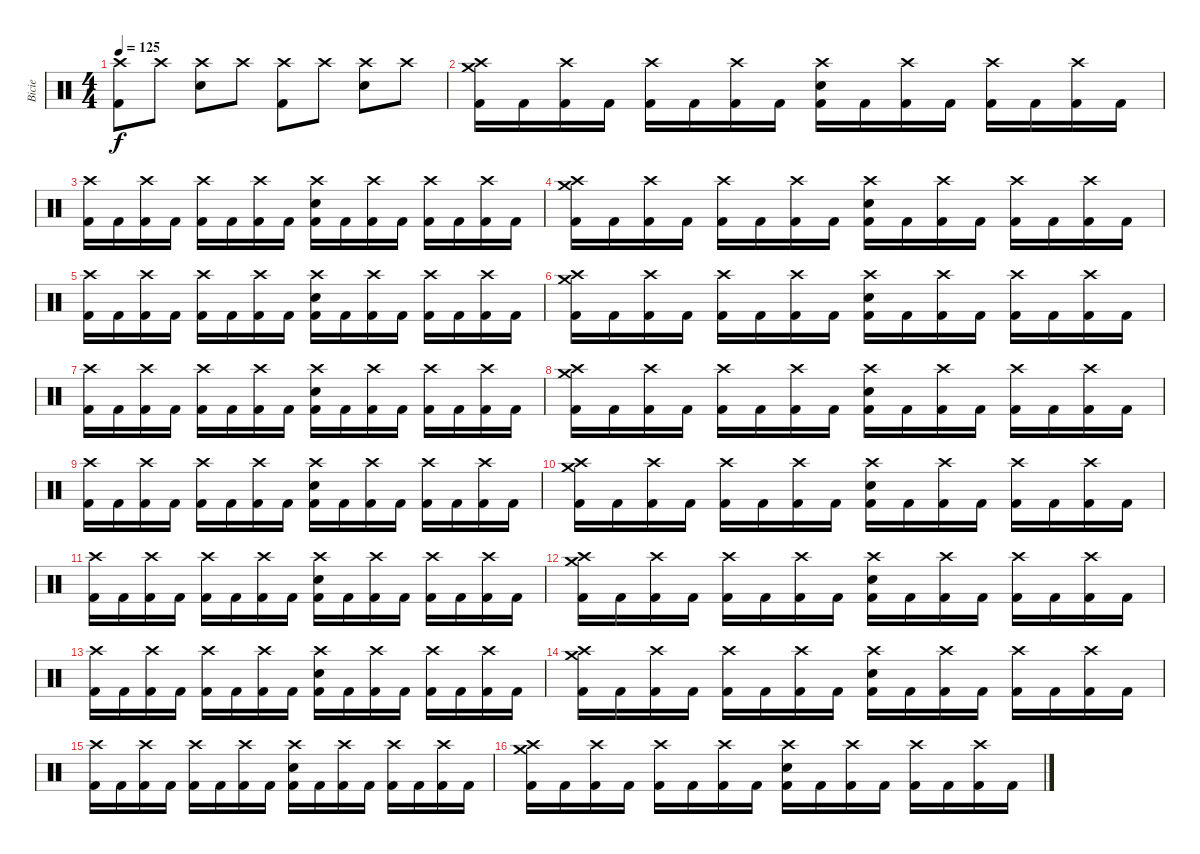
\track ("Bicie" "Bicie") {instrument percussion}
\staff {score}
\articulation defaults
\ts (4 4)
\tempo 125
\clef neutral
\ks c
("Crash high (hit)" "Kick (hit) 2").8{dy f} "Crash high (hit)".8 ("Crash high (hit)" "Snare (hit) 2").8 "Crash high (hit)".8 ("Crash high (hit)" "Kick (hit) 2").8 "Crash high (hit)".8 ("Crash high (hit)" "Snare (hit) 2").8 "Crash high (hit)".8 |
("Crash high (hit)" "Crash medium (hit)" "Kick (hit) 2").16 "Kick (hit) 2".16 ("Crash high (hit)" "Kick (hit) 2").16 "Kick (hit) 2".16 ("Crash high (hit)" "Kick (hit) 2").16 "Kick (hit) 2".16 ("Crash high (hit)" "Kick (hit) 2").16 "Kick (hit) 2".16 ("Crash high (hit)" "Snare (hit) 2" "Kick (hit) 2").16 "Kick (hit) 2".16 ("Crash high (hit)" "Kick (hit) 2").16 "Kick (hit) 2".16 ("Crash high (hit)" "Kick (hit) 2").16 "Kick (hit) 2".16 ("Crash high (hit)" "Kick (hit) 2").16 "Kick (hit) 2".16 |
("Crash high (hit)" "Kick (hit) 2").16 "Kick (hit) 2".16 ("Crash high (hit)" "Kick (hit) 2").16 "Kick (hit) 2".16 ("Crash high (hit)" "Kick (hit) 2").16 "Kick (hit) 2".16 ("Crash high (hit)" "Kick (hit) 2").16 "Kick (hit) 2".16 ("Crash high (hit)" "Snare (hit) 2" "Kick (hit) 2").16 "Kick (hit) 2".16 ("Crash high (hit)" "Kick (hit) 2").16 "Kick (hit) 2".16 ("Crash high (hit)" "Kick (hit) 2").16 "Kick (hit) 2".16 ("Crash high (hit)" "Kick (hit) 2").16 "Kick (hit) 2".16 |
("Crash high (hit)" "Crash medium (hit)" "Kick (hit) 2").16 "Kick (hit) 2".16 ("Crash high (hit)" "Kick (hit) 2").16 "Kick (hit) 2".16 ("Crash high (hit)" "Kick (hit) 2").16 "Kick (hit) 2".16 ("Crash high (hit)" "Kick (hit) 2").16 "Kick (hit) 2".16 ("Crash high (hit)" "Snare (hit) 2" "Kick (hit) 2").16 "Kick (hit) 2".16 ("Crash high (hit)" "Kick (hit) 2").16 "Kick (hit) 2".16 ("Crash high (hit)" "Kick (hit) 2").16 "Kick (hit) 2".16 ("Crash high (hit)" "Kick (hit) 2").16 "Kick (hit) 2".16 |
("Crash high (hit)" "Kick (hit) 2").16 "Kick (hit) 2".16 ("Crash high (hit)" "Kick (hit) 2").16 "Kick (hit) 2".16 ("Crash high (hit)" "Kick (hit) 2").16 "Kick (hit) 2".16 ("Crash high (hit)" "Kick (hit) 2").16 "Kick (hit) 2".16 ("Crash high (hit)" "Snare (hit) 2" "Kick (hit) 2").16 "Kick (hit) 2".16 ("Crash high (hit)" "Kick (hit) 2").16 "Kick (hit) 2".16 ("Crash high (hit)" "Kick (hit) 2").16 "Kick (hit) 2".16 ("Crash high (hit)" "Kick (hit) 2").16 "Kick (hit) 2".16 |
("Crash high (hit)" "Crash medium (hit)" "Kick (hit) 2").16 "Kick (hit) 2".16 ("Crash high (hit)" "Kick (hit) 2").16 "Kick (hit) 2".16 ("Crash high (hit)" "Kick (hit) 2").16 "Kick (hit) 2".16 ("Crash high (hit)" "Kick (hit) 2").16 "Kick (hit) 2".16 ("Crash high (hit)" "Snare (hit) 2" "Kick (hit) 2").16 "Kick (hit) 2".16 ("Crash high (hit)" "Kick (hit) 2").16 "Kick (hit) 2".16 ("Crash high (hit)" "Kick (hit) 2").16 "Kick (hit) 2".16 ("Crash high (hit)" "Kick (hit) 2").16 "Kick (hit) 2".16 |
("Crash high (hit)" "Kick (hit) 2").16 "Kick (hit) 2".16 ("Crash high (hit)" "Kick (hit) 2").16 "Kick (hit) 2".16 ("Crash high (hit)" "Kick (hit) 2").16 "Kick (hit) 2".16 ("Crash high (hit)" "Kick (hit) 2").16 "Kick (hit) 2".16 ("Crash high (hit)" "Snare (hit) 2" "Kick (hit) 2").16 "Kick (hit) 2".16 ("Crash high (hit)" "Kick (hit) 2").16 "Kick (hit) 2".16 ("Crash high (hit)" "Kick (hit) 2").16 "Kick (hit) 2".16 ("Crash high (hit)" "Kick (hit) 2").16 "Kick (hit) 2".16 |
("Crash high (hit)" "Crash medium (hit)" "Kick (hit) 2").16 "Kick (hit) 2".16 ("Crash high (hit)" "Kick (hit) 2").16 "Kick (hit) 2".16 ("Crash high (hit)" "Kick (hit) 2").16 "Kick (hit) 2".16 ("Crash high (hit)" "Kick (hit) 2").16 "Kick (hit) 2".16 ("Crash high (hit)" "Snare (hit) 2" "Kick (hit) 2").16 "Kick (hit) 2".16 ("Crash high (hit)" "Kick (hit) 2").16 "Kick (hit) 2".16 ("Crash high (hit)" "Kick (hit) 2").16 "Kick (hit) 2".16 ("Crash high (hit)" "Kick (hit) 2").16 "Kick (hit) 2".16 |
("Crash high (hit)" "Kick (hit) 2").16 "Kick (hit) 2".16 ("Crash high (hit)" "Kick (hit) 2").16 "Kick (hit) 2".16 ("Crash high (hit)" "Kick (hit) 2").16 "Kick (hit) 2".16 ("Crash high (hit)" "Kick (hit) 2").16 "Kick (hit) 2".16 ("Crash high (hit)" "Snare (hit) 2" "Kick (hit) 2").16 "Kick (hit) 2".16 ("Crash high (hit)" "Kick (hit) 2").16 "Kick (hit) 2".16 ("Crash high (hit)" "Kick (hit) 2").16 "Kick (hit) 2".16 ("Crash high (hit)" "Kick (hit) 2").16 "Kick (hit) 2".16 |
("Crash high (hit)" "Crash medium (hit)" "Kick (hit) 2").16 "Kick (hit) 2".16 ("Crash high (hit)" "Kick (hit) 2").16 "Kick (hit) 2".16 ("Crash high (hit)" "Kick (hit) 2").16 "Kick (hit) 2".16 ("Crash high (hit)" "Kick (hit) 2").16 "Kick (hit) 2".16 ("Crash high (hit)" "Snare (hit) 2" "Kick (hit) 2").16 "Kick (hit) 2".16 ("Crash high (hit)" "Kick (hit) 2").16 "Kick (hit) 2".16 ("Crash high (hit)" "Kick (hit) 2").16 "Kick (hit) 2".16 ("Crash high (hit)" "Kick (hit) 2").16 "Kick (hit) 2".16 |
("Crash high (hit)" "Kick (hit) 2").16 "Kick (hit) 2".16 ("Crash high (hit)" "Kick (hit) 2").16 "Kick (hit) 2".16 ("Crash high (hit)" "Kick (hit) 2").16 "Kick (hit) 2".16 ("Crash high (hit)" "Kick (hit) 2").16 "Kick (hit) 2".16 ("Crash high (hit)" "Snare (hit) 2" "Kick (hit) 2").16 "Kick (hit) 2".16 ("Crash high (hit)" "Kick (hit) 2").16 "Kick (hit) 2".16 ("Crash high (hit)" "Kick (hit) 2").16 "Kick (hit) 2".16 ("Crash high (hit)" "Kick (hit) 2").16 "Kick (hit) 2".16 |
("Crash high (hit)" "Crash medium (hit)" "Kick (hit) 2").16 "Kick (hit) 2".16 ("Crash high (hit)" "Kick (hit) 2").16 "Kick (hit) 2".16 ("Crash high (hit)" "Kick (hit) 2").16 "Kick (hit) 2".16 ("Crash high (hit)" "Kick (hit) 2").16 "Kick (hit) 2".16 ("Crash high (hit)" "Snare (hit) 2" "Kick (hit) 2").16 "Kick (hit) 2".16 ("Crash high (hit)" "Kick (hit) 2").16 "Kick (hit) 2".16 ("Crash high (hit)" "Kick (hit) 2").16 "Kick (hit) 2".16 ("Crash high (hit)" "Kick (hit) 2").16 "Kick (hit) 2".16 |
("Crash high (hit)" "Kick (hit) 2").16 "Kick (hit) 2".16 ("Crash high (hit)" "Kick (hit) 2").16 "Kick (hit) 2".16 ("Crash high (hit)" "Kick (hit) 2").16 "Kick (hit) 2".16 ("Crash high (hit)" "Kick (hit) 2").16 "Kick (hit) 2".16 ("Crash high (hit)" "Snare (hit) 2" "Kick (hit) 2").16 "Kick (hit) 2".16 ("Crash high (hit)" "Kick (hit) 2").16 "Kick (hit) 2".16 ("Crash high (hit)" "Kick (hit) 2").16 "Kick (hit) 2".16 ("Crash high (hit)" "Kick (hit) 2").16 "Kick (hit) 2".16 |
("Crash high (hit)" "Crash medium (hit)" "Kick (hit) 2").16 "Kick (hit) 2".16 ("Crash high (hit)" "Kick (hit) 2").16 "Kick (hit) 2".16 ("Crash high (hit)" "Kick (hit) 2").16 "Kick (hit) 2".16 ("Crash high (hit)" "Kick (hit) 2").16 "Kick (hit) 2".16 ("Crash high (hit)" "Snare (hit) 2" "Kick (hit) 2").16 "Kick (hit) 2".16 ("Crash high (hit)" "Kick (hit) 2").16 "Kick (hit) 2".16 ("Crash high (hit)" "Kick (hit) 2").16 "Kick (hit) 2".16 ("Crash high (hit)" "Kick (hit) 2").16 "Kick (hit) 2".16 |
("Crash high (hit)" "Kick (hit) 2").16 "Kick (hit) 2".16 ("Crash high (hit)" "Kick (hit) 2").16 "Kick (hit) 2".16 ("Crash high (hit)" "Kick (hit) 2").16 "Kick (hit) 2".16 ("Crash high (hit)" "Kick (hit) 2").16 "Kick (hit) 2".16 ("Crash high (hit)" "Snare (hit) 2" "Kick (hit) 2").16 "Kick (hit) 2".16 ("Crash high (hit)" "Kick (hit) 2").16 "Kick (hit) 2".16 ("Crash high (hit)" "Kick (hit) 2").16 "Kick (hit) 2".16 ("Crash high (hit)" "Kick (hit) 2").16 "Kick (hit) 2".16 |
("Crash high (hit)" "Crash medium (hit)" "Kick (hit) 2").16 "Kick (hit) 2".16 ("Crash high (hit)" "Kick (hit) 2").16 "Kick (hit) 2".16 ("Crash high (hit)" "Kick (hit) 2").16 "Kick (hit) 2".16 ("Crash high (hit)" "Kick (hit) 2").16 "Kick (hit) 2".16 ("Crash high (hit)" "Snare (hit) 2" "Kick (hit) 2").16 "Kick (hit) 2".16 ("Crash high (hit)" "Kick (hit) 2").16 "Kick (hit) 2".16 ("Crash high (hit)" "Kick (hit) 2").16 "Kick (hit) 2".16 ("Crash high (hit)" "Kick (hit) 2").16 "Kick (hit) 2".16
